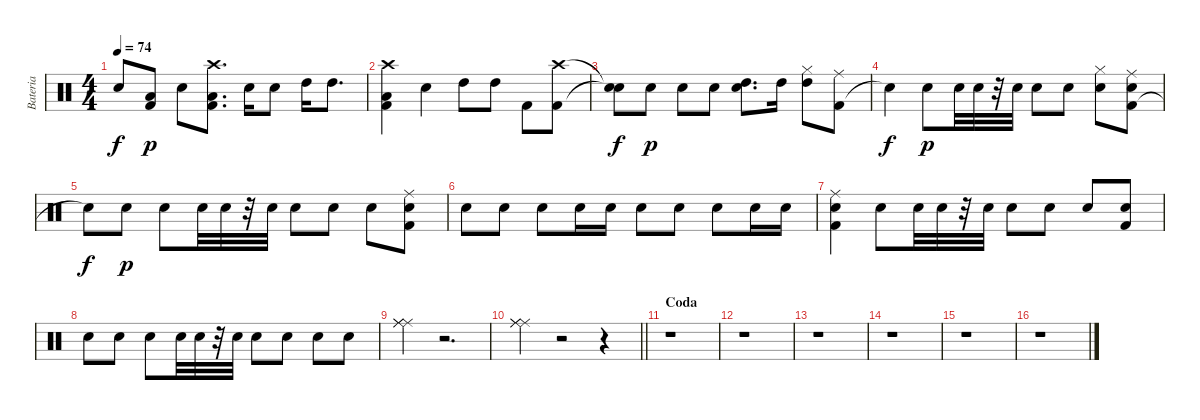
\track ("Bateria" "Bateria") {instrument percussion}
\staff {score}
\articulation defaults
\ts (4 4)
\tempo 74
\clef neutral
\ks c "Snare (hit)"{t}.8{dy f}
("Kick (hit) 2" "Low Tom (hit)").8{dy p} "Snare (hit) 2".8 ("Kick (hit) 2" "Low Tom (hit)" "Crash high (hit)").8{d} "Snare (hit) 2".16 "Snare (hit) 2".8 "High Tom (hit)".16 "High Tom (hit)".8{d} |
("Kick (hit) 2" "Low Tom (hit)" "Crash high (hit)").4 "Snare (hit) 2".4 "High Tom (hit)".8 "High Tom (hit)".8 "Kick (hit) 2".8 ("Kick (hit) 2" "Crash high (hit)").8 |
("Snare (hit)"{t} "Snare (hit)"{t}).8{dy f} "Snare (hit) 2".8{dy p} "Snare (hit) 2".8 "Snare (hit) 2".8 ("Snare (hit) 2" "High Tom (hit)").8{d} "High Tom (hit)".16 ("Hi-Hat (closed)" "High Tom (hit)").8 ("Kick (hit) 2" "Ride (middle)").8 |
"Snare (hit)"{t}.4{dy f} "Snare (hit) 2".8{dy p} "Snare (hit) 2".32 "Snare (hit) 2".32 r.32 "Snare (hit) 2".32 "Snare (hit) 2".8 "Snare (hit) 2".8 ("Snare (hit) 2" "Hi-Hat (closed)").8 ("Kick (hit) 2" "Snare (hit) 2" "Ride (middle)").8 |
"Snare (hit)"{t}.8{dy f} "Snare (hit) 2".8{dy p} "Snare (hit) 2".8 "Snare (hit) 2".32 "Snare (hit) 2".32 r.32 "Snare (hit) 2".32 "Snare (hit) 2".8 "Snare (hit) 2".8 "Snare (hit) 2".8 ("Kick (hit) 2" "Snare (hit) 2" "Ride (middle)").8 |
"Snare (hit) 2".8 "Snare (hit) 2".8 "Snare (hit) 2".8 "Snare (hit) 2".16 "Snare (hit) 2".16 "Snare (hit) 2".8 "Snare (hit) 2".8 "Snare (hit) 2".8 "Snare (hit) 2".16 "Snare (hit) 2".16 |
("Kick (hit) 2" "Snare (hit) 2" "Ride (middle)").4 "Snare (hit) 2".8 "Snare (hit) 2".32 "Snare (hit) 2".32 r.32 "Snare (hit) 2".32 "Snare (hit) 2".8 "Snare (hit) 2".8 "Snare (hit) 2".8 ("Kick (hit) 2" "Snare (hit) 2").8 |
"Snare (hit) 2".8 "Snare (hit) 2".8 "Snare (hit) 2".8 "Snare (hit) 2".32 "Snare (hit) 2".32 r.32 "Snare (hit) 2".32 "Snare (hit) 2".8 "Snare (hit) 2".8 "Snare (hit) 2".8 "Snare (hit) 2".8 |
("Ride (middle)" "Ride (middle)" "Ride (middle)").4 r.2{d} |
\barLineRight lightlight
("Ride (middle)" "Ride (middle)" "Ride (middle)").4 r.2 r.4 |
\section ("" "Coda")
r.1 |
r.1 |
r.1 |
r.1 |
r.1 |
r.1
